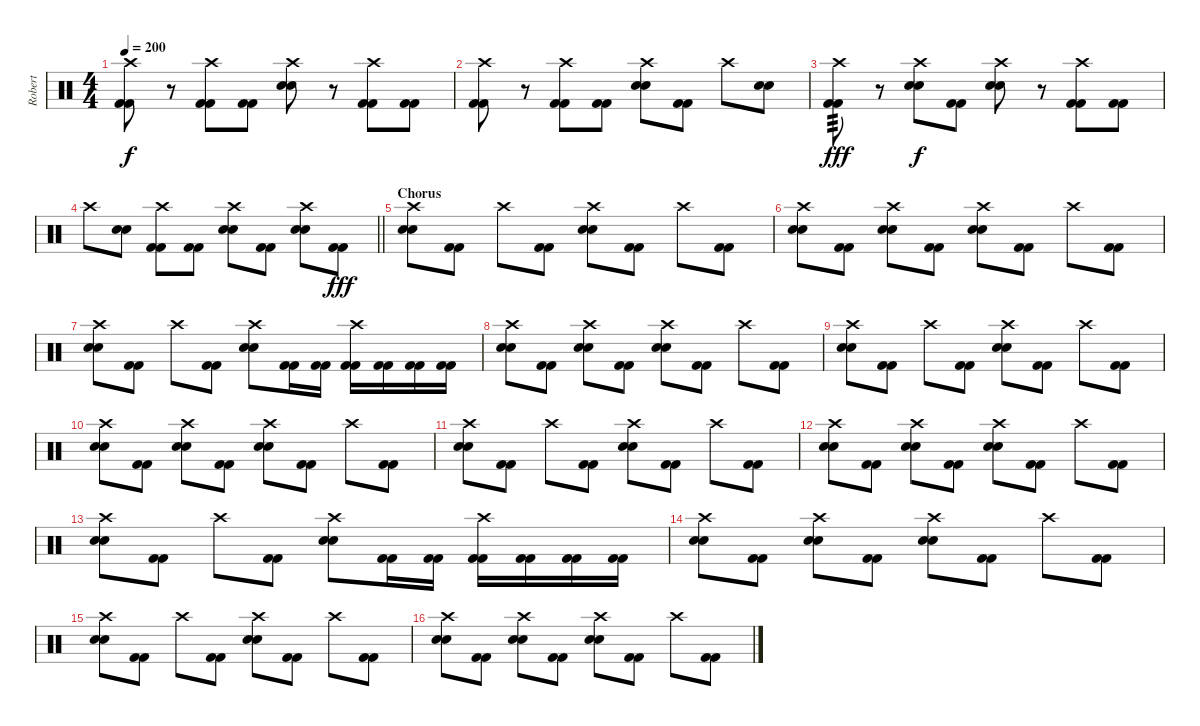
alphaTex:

\track ("Robert" "Robert") {instrument percussion}
\staff {score}
\articulation defaults
\ts (4 4)
\tempo 200
\clef neutral
\ks c
("Crash high (hit)" "Kick (hit) 2" "Kick (hit) 2").8{dy f} r.8 ("Crash high (hit)" "Kick (hit) 2" "Kick (hit) 2").8 ("Kick (hit) 2" "Kick (hit) 2").8 ("Crash high (hit)" "Electric Snare (hit)" "Electric Snare (hit)").8 r.8 ("Crash high (hit)" "Kick (hit) 2" "Kick (hit) 2").8 ("Kick (hit) 2" "Kick (hit) 2").8 |
("Crash high (hit)" "Kick (hit) 2" "Kick (hit) 2").8 r.8 ("Crash high (hit)" "Kick (hit) 2" "Kick (hit) 2").8 ("Kick (hit) 2" "Kick (hit) 2").8 ("Crash high (hit)" "Electric Snare (hit)" "Electric Snare (hit)").8 ("Kick (hit) 2" "Kick (hit) 2").8 "Crash high (hit)".8 ("Electric Snare (hit)" "Electric Snare (hit)").8 |
("Crash high (hit)" "Kick (hit) 2" "Kick (hit) 2").8{tp 3 dy fff} r.8 ("Crash high (hit)" "Electric Snare (hit)" "Electric Snare (hit)").8{dy f} ("Kick (hit) 2" "Kick (hit) 2").8 ("Crash high (hit)" "Electric Snare (hit)" "Electric Snare (hit)").8 r.8 ("Crash high (hit)" "Kick (hit) 2" "Kick (hit) 2").8 ("Kick (hit) 2" "Kick (hit) 2").8 |
\barLineRight lightlight "Crash high (hit)".8
("Electric Snare (hit)" "Electric Snare (hit)").8 ("Crash high (hit)" "Kick (hit) 2" "Kick (hit) 2").8 ("Kick (hit) 2" "Kick (hit) 2").8 ("Crash high (hit)" "Electric Snare (hit)" "Electric Snare (hit)").8 ("Kick (hit) 2" "Kick (hit) 2").8 ("Crash high (hit)" "Electric Snare (hit)" "Electric Snare (hit)").8 ("Kick (hit) 2" "Kick (hit) 2").8{dy fff} |
\section ("" "Chorus ")
("Crash high (hit)" "Electric Snare (hit)" "Electric Snare (hit)").8 ("Kick (hit) 2" "Kick (hit) 2").8 "Crash high (hit)".8 ("Kick (hit) 2" "Kick (hit) 2").8 ("Crash high (hit)" "Electric Snare (hit)" "Electric Snare (hit)").8 ("Kick (hit) 2" "Kick (hit) 2").8 "Crash high (hit)".8 ("Kick (hit) 2" "Kick (hit) 2").8 |
("Crash high (hit)" "Electric Snare (hit)" "Electric Snare (hit)").8 ("Kick (hit) 2" "Kick (hit) 2").8 ("Crash high (hit)" "Electric Snare (hit)" "Electric Snare (hit)").8 ("Kick (hit) 2" "Kick (hit) 2").8 ("Crash high (hit)" "Electric Snare (hit)" "Electric Snare (hit)").8 ("Kick (hit) 2" "Kick (hit) 2").8 "Crash high (hit)".8 ("Kick (hit) 2" "Kick (hit) 2").8 |
("Crash high (hit)" "Electric Snare (hit)" "Electric Snare (hit)").8 ("Kick (hit) 2" "Kick (hit) 2").8 "Crash high (hit)".8 ("Kick (hit) 2" "Kick (hit) 2").8 ("Crash high (hit)" "Electric Snare (hit)" "Electric Snare (hit)").8 ("Kick (hit) 2" "Kick (hit) 2").16 ("Kick (hit) 2" "Kick (hit) 2").16 ("Crash high (hit)" "Kick (hit) 2" "Kick (hit) 2").16 ("Kick (hit) 2" "Kick (hit) 2").16 ("Kick (hit) 2" "Kick (hit) 2").16 ("Kick (hit) 2" "Kick (hit) 2").16 |
("Crash high (hit)" "Electric Snare (hit)" "Electric Snare (hit)").8 ("Kick (hit) 2" "Kick (hit) 2").8 ("Crash high (hit)" "Electric Snare (hit)" "Electric Snare (hit)").8 ("Kick (hit) 2" "Kick (hit) 2").8 ("Crash high (hit)" "Electric Snare (hit)" "Electric Snare (hit)").8 ("Kick (hit) 2" "Kick (hit) 2").8 "Crash high (hit)".8 ("Kick (hit) 2" "Kick (hit) 2").8 |
("Crash high (hit)" "Electric Snare (hit)" "Electric Snare (hit)").8 ("Kick (hit) 2" "Kick (hit) 2").8 "Crash high (hit)".8 ("Kick (hit) 2" "Kick (hit) 2").8 ("Crash high (hit)" "Electric Snare (hit)" "Electric Snare (hit)").8 ("Kick (hit) 2" "Kick (hit) 2").8 "Crash high (hit)".8 ("Kick (hit) 2" "Kick (hit) 2").8 |
("Crash high (hit)" "Electric Snare (hit)" "Electric Snare (hit)").8 ("Kick (hit) 2" "Kick (hit) 2").8 ("Crash high (hit)" "Electric Snare (hit)" "Electric Snare (hit)").8 ("Kick (hit) 2" "Kick (hit) 2").8 ("Crash high (hit)" "Electric Snare (hit)" "Electric Snare (hit)").8 ("Kick (hit) 2" "Kick (hit) 2").8 "Crash high (hit)".8 ("Kick (hit) 2" "Kick (hit) 2").8 |
("Crash high (hit)" "Electric Snare (hit)" "Electric Snare (hit)").8 ("Kick (hit) 2" "Kick (hit) 2").8 "Crash high (hit)".8 ("Kick (hit) 2" "Kick (hit) 2").8 ("Crash high (hit)" "Electric Snare (hit)" "Electric Snare (hit)").8 ("Kick (hit) 2" "Kick (hit) 2").8 "Crash high (hit)".8 ("Kick (hit) 2" "Kick (hit) 2").8 |
("Crash high (hit)" "Electric Snare (hit)" "Electric Snare (hit)").8 ("Kick (hit) 2" "Kick (hit) 2").8 ("Crash high (hit)" "Electric Snare (hit)" "Electric Snare (hit)").8 ("Kick (hit) 2" "Kick (hit) 2").8 ("Crash high (hit)" "Electric Snare (hit)" "Electric Snare (hit)").8 ("Kick (hit) 2" "Kick (hit) 2").8 "Crash high (hit)".8 ("Kick (hit) 2" "Kick (hit) 2").8 |
("Crash high (hit)" "Electric Snare (hit)" "Electric Snare (hit)").8 ("Kick (hit) 2" "Kick (hit) 2").8 "Crash high (hit)".8 ("Kick (hit) 2" "Kick (hit) 2").8 ("Crash high (hit)" "Electric Snare (hit)" "Electric Snare (hit)").8 ("Kick (hit) 2" "Kick (hit) 2").16 ("Kick (hit) 2" "Kick (hit) 2").16 ("Crash high (hit)" "Kick (hit) 2" "Kick (hit) 2").16 ("Kick (hit) 2" "Kick (hit) 2").16 ("Kick (hit) 2" "Kick (hit) 2").16 ("Kick (hit) 2" "Kick (hit) 2").16 |
("Crash high (hit)" "Electric Snare (hit)" "Electric Snare (hit)").8 ("Kick (hit) 2" "Kick (hit) 2").8 ("Crash high (hit)" "Electric Snare (hit)" "Electric Snare (hit)").8 ("Kick (hit) 2" "Kick (hit) 2").8 ("Crash high (hit)" "Electric Snare (hit)" "Electric Snare (hit)").8 ("Kick (hit) 2" "Kick (hit) 2").8 "Crash high (hit)".8 ("Kick (hit) 2" "Kick (hit) 2").8 |
("Crash high (hit)" "Electric Snare (hit)" "Electric Snare (hit)").8 ("Kick (hit) 2" "Kick (hit) 2").8 "Crash high (hit)".8 ("Kick (hit) 2" "Kick (hit) 2").8 ("Crash high (hit)" "Electric Snare (hit)" "Electric Snare (hit)").8 ("Kick (hit) 2" "Kick (hit) 2").8 "Crash high (hit)".8 ("Kick (hit) 2" "Kick (hit) 2").8 |
("Crash high (hit)" "Electric Snare (hit)" "Electric Snare (hit)").8 ("Kick (hit) 2" "Kick (hit) 2").8 ("Crash high (hit)" "Electric Snare (hit)" "Electric Snare (hit)").8 ("Kick (hit) 2" "Kick (hit) 2").8 ("Crash high (hit)" "Electric Snare (hit)" "Electric Snare (hit)").8 ("Kick (hit) 2" "Kick (hit) 2").8 "Crash high (hit)".8 ("Kick (hit) 2" "Kick (hit) 2").8
